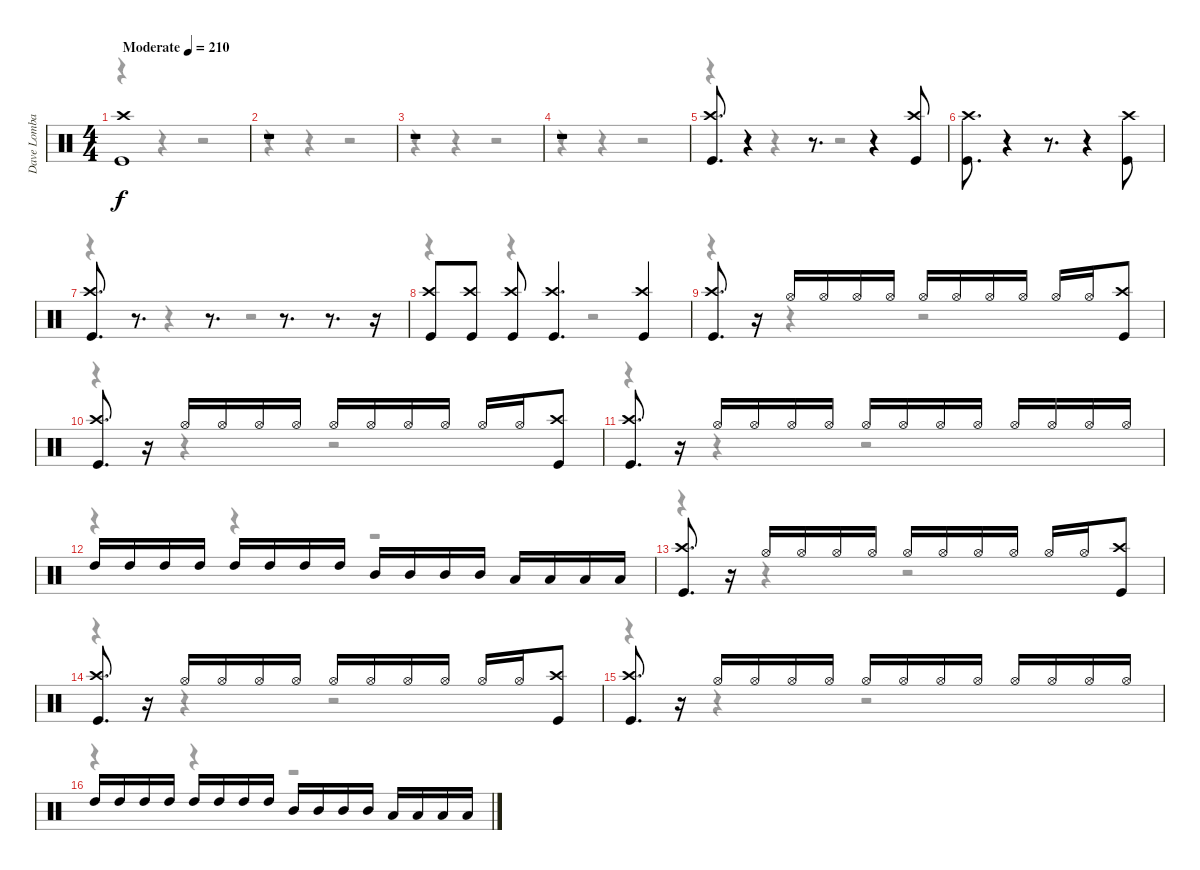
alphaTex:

\track ("Dave Lombardo" "Dave Lomba") {instrument percussion}
\staff {score}
\articulation defaults
\voice
\ts (4 4)
\tempo (210 "Moderate")
\clef neutral
\ks c
("Crash high (hit)" "Kick (hit)").1{dy f} |
r.1 |
r.1 |
r.1 |
("Crash high (hit)" "Kick (hit)").8{d} r.4 r.8{d} r.4 ("Crash high (hit)" "Kick (hit)").8 |
("Crash high (hit)" "Kick (hit)").8{d} r.4 r.8{d} r.4 ("Crash high (hit)" "Kick (hit)").8 |
("Crash high (hit)" "Kick (hit)").8{d} r.8{d} r.8{d} r.8{d} r.8{d} r.16 |
("Crash high (hit)" "Kick (hit)").8 ("Crash high (hit)" "Kick (hit)").8 ("Crash high (hit)" "Kick (hit)").8 ("Crash high (hit)" "Kick (hit)").4{d} ("Crash high (hit)" "Kick (hit)").4 |
("Crash high (hit)" "Kick (hit)").8{d} r.16 "Hi-Hat (open)".16 "Hi-Hat (open)".16 "Hi-Hat (open)".16 "Hi-Hat (open)".16 "Hi-Hat (open)".16 "Hi-Hat (open)".16 "Hi-Hat (open)".16 "Hi-Hat (open)".16 "Hi-Hat (open)".16 "Hi-Hat (open)".16 ("Crash high (hit)" "Kick (hit)").8 |
("Crash high (hit)" "Kick (hit)").8{d} r.16 "Hi-Hat (open)".16 "Hi-Hat (open)".16 "Hi-Hat (open)".16 "Hi-Hat (open)".16 "Hi-Hat (open)".16 "Hi-Hat (open)".16 "Hi-Hat (open)".16 "Hi-Hat (open)".16 "Hi-Hat (open)".16 "Hi-Hat (open)".16 ("Crash high (hit)" "Kick (hit)").8 |
("Crash high (hit)" "Kick (hit)").8{d} r.16 "Hi-Hat (open)".16 "Hi-Hat (open)".16 "Hi-Hat (open)".16 "Hi-Hat (open)".16 "Hi-Hat (open)".16 "Hi-Hat (open)".16 "Hi-Hat (open)".16 "Hi-Hat (open)".16 "Hi-Hat (open)".16 "Hi-Hat (open)".16 "Hi-Hat (open)".16 "Hi-Hat (open)".16 |
"High Tom (hit)".16 "High Tom (hit)".16 "High Tom (hit)".16 "High Tom (hit)".16 "High Tom (hit)".16 "High Tom (hit)".16 "High Tom (hit)".16 "High Tom (hit)".16 "Mid Tom (hit)".16 "Mid Tom (hit)".16 "Mid Tom (hit)".16 "Mid Tom (hit)".16 "Low Tom (hit)".16 "Low Tom (hit)".16 "Low Tom (hit)".16 "Low Tom (hit)".16 |
("Crash high (hit)" "Kick (hit)").8{d} r.16 "Hi-Hat (open)".16 "Hi-Hat (open)".16 "Hi-Hat (open)".16 "Hi-Hat (open)".16 "Hi-Hat (open)".16 "Hi-Hat (open)".16 "Hi-Hat (open)".16 "Hi-Hat (open)".16 "Hi-Hat (open)".16 "Hi-Hat (open)".16 ("Crash high (hit)" "Kick (hit)").8 |
("Crash high (hit)" "Kick (hit)").8{d} r.16 "Hi-Hat (open)".16 "Hi-Hat (open)".16 "Hi-Hat (open)".16 "Hi-Hat (open)".16 "Hi-Hat (open)".16 "Hi-Hat (open)".16 "Hi-Hat (open)".16 "Hi-Hat (open)".16 "Hi-Hat (open)".16 "Hi-Hat (open)".16 ("Crash high (hit)" "Kick (hit)").8 |
("Crash high (hit)" "Kick (hit)").8{d} r.16 "Hi-Hat (open)".16 "Hi-Hat (open)".16 "Hi-Hat (open)".16 "Hi-Hat (open)".16 "Hi-Hat (open)".16 "Hi-Hat (open)".16 "Hi-Hat (open)".16 "Hi-Hat (open)".16 "Hi-Hat (open)".16 "Hi-Hat (open)".16 "Hi-Hat (open)".16 "Hi-Hat (open)".16 |
"High Tom (hit)".16 "High Tom (hit)".16 "High Tom (hit)".16 "High Tom (hit)".16 "High Tom (hit)".16 "High Tom (hit)".16 "High Tom (hit)".16 "High Tom (hit)".16 "Mid Tom (hit)".16 "Mid Tom (hit)".16 "Mid Tom (hit)".16 "Mid Tom (hit)".16 "Low Tom (hit)".16 "Low Tom (hit)".16 "Low Tom (hit)".16 "Low Tom (hit)".16
\voice
\clef neutral
\ottava regular
\simile none
\ks c
r.4{dy f} r.4 r.2 |
r.4 r.4 r.2 |
r.4 r.4 r.2 |
r.4 r.4 r.2 |
r.4 r.4 r.2 |
|
r.4 r.4 r.2 |
r.4 r.4 r.2 |
r.4 r.4 r.2 |
r.4 r.4 r.2 |
r.4 r.4 r.2 |
r.4 r.4 r.2 |
r.4 r.4 r.2 |
r.4 r.4 r.2 |
r.4 r.4 r.2 |
r.4 r.4 r.2
